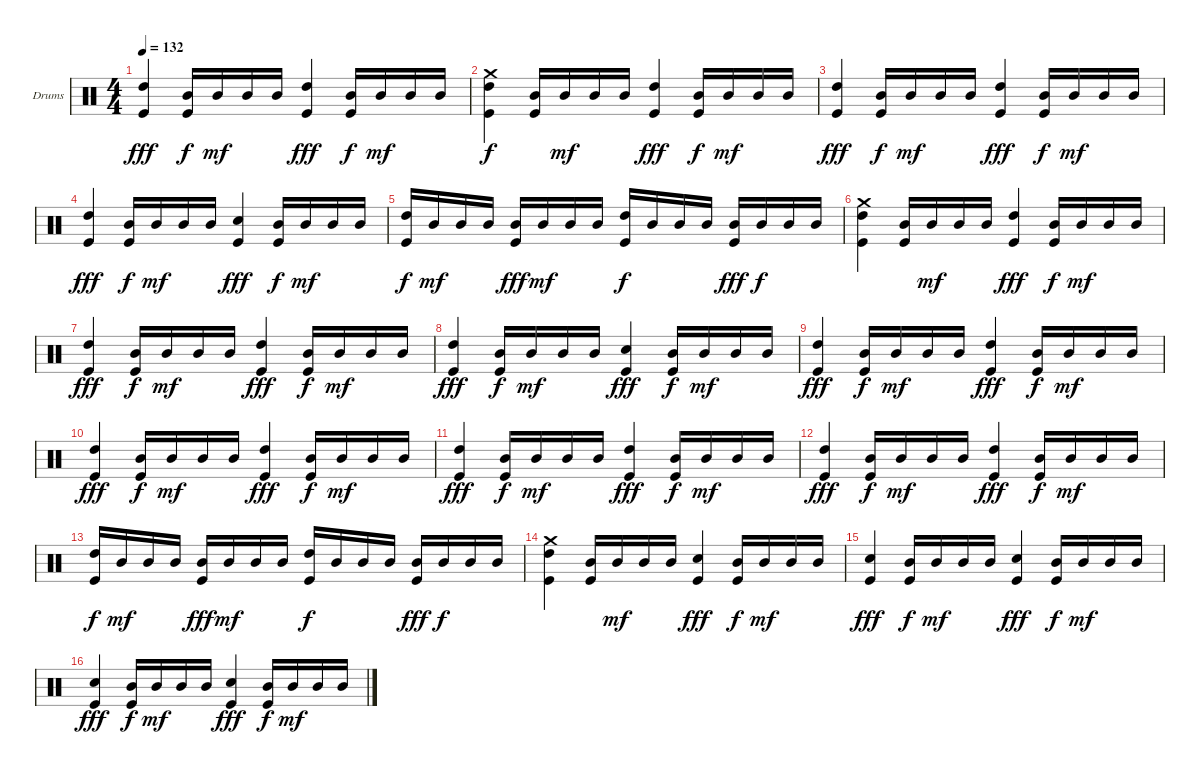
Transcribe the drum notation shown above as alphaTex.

\bracketExtendMode groupsimilarinstruments
\firstSystemTrackNameOrientation horizontal
\otherSystemsTrackNameOrientation horizontal
\track ("Larry" "Drums") {instrument percussion}
\staff {score}
\articulation defaults
\ts (4 4)
\tempo 132
\clef neutral
\ks c
("High Tom (hit)" "Kick (hit)").4{dy fff} ("Mid Tom (hit)" "Kick (hit)").16{dy f} "Mid Tom (hit)".16{dy mf} "Mid Tom (hit)".16 "Mid Tom (hit)".16 ("High Tom (hit)" "Kick (hit)").4{dy fff} ("Mid Tom (hit)" "Kick (hit)").16{dy f} "Mid Tom (hit)".16{dy mf} "Mid Tom (hit)".16 "Mid Tom (hit)".16 |
("Crash medium (hit)" "High Tom (hit)" "Kick (hit)").4{dy f} ("Mid Tom (hit)" "Kick (hit)").16 "Mid Tom (hit)".16{dy mf} "Mid Tom (hit)".16 "Mid Tom (hit)".16 ("High Tom (hit)" "Kick (hit)").4{dy fff} ("Mid Tom (hit)" "Kick (hit)").16{dy f} "Mid Tom (hit)".16{dy mf} "Mid Tom (hit)".16 "Mid Tom (hit)".16 |
("High Tom (hit)" "Kick (hit)").4{dy fff} ("Mid Tom (hit)" "Kick (hit)").16{dy f} "Mid Tom (hit)".16{dy mf} "Mid Tom (hit)".16 "Mid Tom (hit)".16 ("High Tom (hit)" "Kick (hit)").4{dy fff} ("Mid Tom (hit)" "Kick (hit)").16{dy f} "Mid Tom (hit)".16{dy mf} "Mid Tom (hit)".16 "Mid Tom (hit)".16 |
("High Tom (hit)" "Kick (hit)").4{dy fff} ("Mid Tom (hit)" "Kick (hit)").16{dy f} "Mid Tom (hit)".16{dy mf} "Mid Tom (hit)".16 "Mid Tom (hit)".16 ("Snare (hit) 2" "Kick (hit)").4{dy fff} ("Mid Tom (hit)" "Kick (hit)").16{dy f} "Mid Tom (hit)".16{dy mf} "Mid Tom (hit)".16 "Mid Tom (hit)".16 |
("High Tom (hit)" "Kick (hit)").16{dy f} "Mid Tom (hit)".16{dy mf} "Mid Tom (hit)".16 "Mid Tom (hit)".16 ("Mid Tom (hit)" "Kick (hit)").16{dy fff} "Mid Tom (hit)".16{dy mf} "Mid Tom (hit)".16 "Mid Tom (hit)".16 ("High Tom (hit)" "Kick (hit)").16{dy f} "Mid Tom (hit)".16 "Mid Tom (hit)".16 "Mid Tom (hit)".16 ("Mid Tom (hit)" "Kick (hit)").16{dy fff} "Mid Tom (hit)".16{dy f} "Mid Tom (hit)".16 "Mid Tom (hit)".16 |
("Crash medium (hit)" "High Tom (hit)" "Kick (hit)").4 ("Mid Tom (hit)" "Kick (hit)").16 "Mid Tom (hit)".16{dy mf} "Mid Tom (hit)".16 "Mid Tom (hit)".16 ("High Tom (hit)" "Kick (hit)").4{dy fff} ("Mid Tom (hit)" "Kick (hit)").16{dy f} "Mid Tom (hit)".16{dy mf} "Mid Tom (hit)".16 "Mid Tom (hit)".16 |
("High Tom (hit)" "Kick (hit)").4{dy fff} ("Mid Tom (hit)" "Kick (hit)").16{dy f} "Mid Tom (hit)".16{dy mf} "Mid Tom (hit)".16 "Mid Tom (hit)".16 ("High Tom (hit)" "Kick (hit)").4{dy fff} ("Mid Tom (hit)" "Kick (hit)").16{dy f} "Mid Tom (hit)".16{dy mf} "Mid Tom (hit)".16 "Mid Tom (hit)".16 |
("High Tom (hit)" "Kick (hit)").4{dy fff} ("Mid Tom (hit)" "Kick (hit)").16{dy f} "Mid Tom (hit)".16{dy mf} "Mid Tom (hit)".16 "Mid Tom (hit)".16 ("Snare (hit) 2" "Kick (hit)").4{dy fff} ("Mid Tom (hit)" "Kick (hit)").16{dy f} "Mid Tom (hit)".16{dy mf} "Mid Tom (hit)".16 "Mid Tom (hit)".16 |
("High Tom (hit)" "Kick (hit)").4{dy fff} ("Mid Tom (hit)" "Kick (hit)").16{dy f} "Mid Tom (hit)".16{dy mf} "Mid Tom (hit)".16 "Mid Tom (hit)".16 ("High Tom (hit)" "Kick (hit)").4{dy fff} ("Mid Tom (hit)" "Kick (hit)").16{dy f} "Mid Tom (hit)".16{dy mf} "Mid Tom (hit)".16 "Mid Tom (hit)".16 |
("High Tom (hit)" "Kick (hit)").4{dy fff} ("Mid Tom (hit)" "Kick (hit)").16{dy f} "Mid Tom (hit)".16{dy mf} "Mid Tom (hit)".16 "Mid Tom (hit)".16 ("High Tom (hit)" "Kick (hit)").4{dy fff} ("Mid Tom (hit)" "Kick (hit)").16{dy f} "Mid Tom (hit)".16{dy mf} "Mid Tom (hit)".16 "Mid Tom (hit)".16 |
("High Tom (hit)" "Kick (hit)").4{dy fff} ("Mid Tom (hit)" "Kick (hit)").16{dy f} "Mid Tom (hit)".16{dy mf} "Mid Tom (hit)".16 "Mid Tom (hit)".16 ("High Tom (hit)" "Kick (hit)").4{dy fff} ("Mid Tom (hit)" "Kick (hit)").16{dy f} "Mid Tom (hit)".16{dy mf} "Mid Tom (hit)".16 "Mid Tom (hit)".16 |
("High Tom (hit)" "Kick (hit)").4{dy fff} ("Mid Tom (hit)" "Kick (hit)").16{dy f} "Mid Tom (hit)".16{dy mf} "Mid Tom (hit)".16 "Mid Tom (hit)".16 ("High Tom (hit)" "Kick (hit)").4{dy fff} ("Mid Tom (hit)" "Kick (hit)").16{dy f} "Mid Tom (hit)".16{dy mf} "Mid Tom (hit)".16 "Mid Tom (hit)".16 |
("High Tom (hit)" "Kick (hit)").16{dy f} "Mid Tom (hit)".16{dy mf} "Mid Tom (hit)".16 "Mid Tom (hit)".16 ("Mid Tom (hit)" "Kick (hit)").16{dy fff} "Mid Tom (hit)".16{dy mf} "Mid Tom (hit)".16 "Mid Tom (hit)".16 ("High Tom (hit)" "Kick (hit)").16{dy f} "Mid Tom (hit)".16 "Mid Tom (hit)".16 "Mid Tom (hit)".16 ("Mid Tom (hit)" "Kick (hit)").16{dy fff} "Mid Tom (hit)".16{dy f} "Mid Tom (hit)".16 "Mid Tom (hit)".16 |
("Crash medium (hit)" "High Tom (hit)" "Kick (hit)").4 ("Mid Tom (hit)" "Kick (hit)").16 "Mid Tom (hit)".16{dy mf} "Mid Tom (hit)".16 "Mid Tom (hit)".16 ("Snare (hit) 2" "Kick (hit)").4{dy fff} ("Mid Tom (hit)" "Kick (hit)").16{dy f} "Mid Tom (hit)".16{dy mf} "Mid Tom (hit)".16 "Mid Tom (hit)".16 |
("Snare (hit) 2" "Kick (hit)").4{dy fff} ("Mid Tom (hit)" "Kick (hit)").16{dy f} "Mid Tom (hit)".16{dy mf} "Mid Tom (hit)".16 "Mid Tom (hit)".16 ("Snare (hit) 2" "Kick (hit)").4{dy fff} ("Mid Tom (hit)" "Kick (hit)").16{dy f} "Mid Tom (hit)".16{dy mf} "Mid Tom (hit)".16 "Mid Tom (hit)".16 |
("Snare (hit) 2" "Kick (hit)").4{dy fff} ("Mid Tom (hit)" "Kick (hit)").16{dy f} "Mid Tom (hit)".16{dy mf} "Mid Tom (hit)".16 "Mid Tom (hit)".16 ("Snare (hit) 2" "Kick (hit)").4{dy fff} ("Mid Tom (hit)" "Kick (hit)").16{dy f} "Mid Tom (hit)".16{dy mf} "Mid Tom (hit)".16 "Mid Tom (hit)".16
